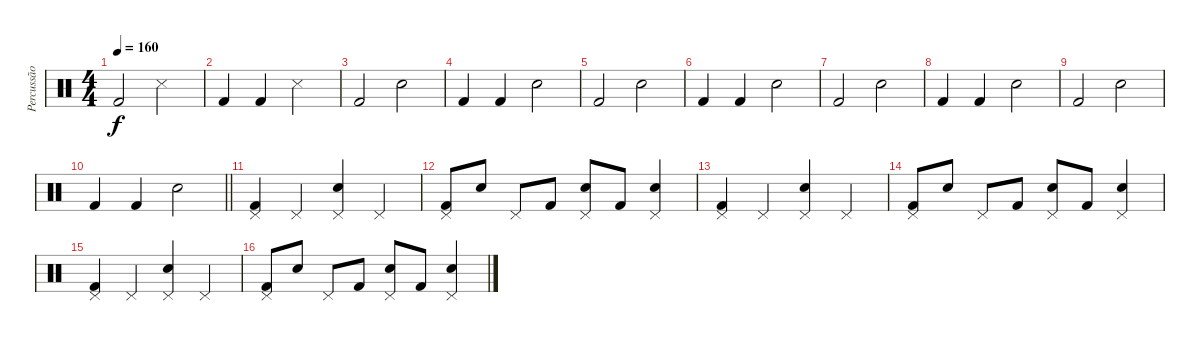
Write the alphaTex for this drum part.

\track ("Percussão" "Percussão") {instrument percussion}
\staff {score}
\articulation defaults
\ts (4 4)
\tempo 160
\clef neutral
\ks c "Kick (hit) 2".2{dy f} "Snare (side stick) 3".2
|
"Kick (hit) 2".4 "Kick (hit) 2".4 "Snare (side stick) 3".2 |
"Kick (hit) 2".2 "Snare (hit) 2".2 |
"Kick (hit) 2".4 "Kick (hit) 2".4 "Snare (hit) 2".2 |
"Kick (hit) 2".2 "Snare (hit) 2".2 |
"Kick (hit) 2".4 "Kick (hit) 2".4 "Snare (hit) 2".2 |
"Kick (hit) 2".2 "Snare (hit) 2".2 |
"Kick (hit) 2".4 "Kick (hit) 2".4 "Snare (hit) 2".2 |
"Kick (hit) 2".2 "Snare (hit) 2".2 |
\barLineRight lightlight "Kick (hit) 2".4 "Kick (hit) 2".4 "Snare (hit) 2".2
|
("Pedal Hi-Hat (hit)" "Kick (hit) 2").4 "Pedal Hi-Hat (hit)".4 ("Pedal Hi-Hat (hit)" "Snare (hit) 2").4 "Pedal Hi-Hat (hit)".4 |
("Pedal Hi-Hat (hit)" "Kick (hit) 2").8 "Snare (hit) 2".8 "Pedal Hi-Hat (hit)".8 "Kick (hit) 2".8 ("Pedal Hi-Hat (hit)" "Snare (hit) 2").8 "Kick (hit) 2".8 ("Pedal Hi-Hat (hit)" "Snare (hit) 2").4 |
("Pedal Hi-Hat (hit)" "Kick (hit) 2").4 "Pedal Hi-Hat (hit)".4 ("Pedal Hi-Hat (hit)" "Snare (hit) 2").4 "Pedal Hi-Hat (hit)".4 |
("Pedal Hi-Hat (hit)" "Kick (hit) 2").8 "Snare (hit) 2".8 "Pedal Hi-Hat (hit)".8 "Kick (hit) 2".8 ("Pedal Hi-Hat (hit)" "Snare (hit) 2").8 "Kick (hit) 2".8 ("Pedal Hi-Hat (hit)" "Snare (hit) 2").4 |
("Pedal Hi-Hat (hit)" "Kick (hit) 2").4 "Pedal Hi-Hat (hit)".4 ("Pedal Hi-Hat (hit)" "Snare (hit) 2").4 "Pedal Hi-Hat (hit)".4 |
("Pedal Hi-Hat (hit)" "Kick (hit) 2").8 "Snare (hit) 2".8 "Pedal Hi-Hat (hit)".8 "Kick (hit) 2".8 ("Pedal Hi-Hat (hit)" "Snare (hit) 2").8 "Kick (hit) 2".8 ("Pedal Hi-Hat (hit)" "Snare (hit) 2").4
